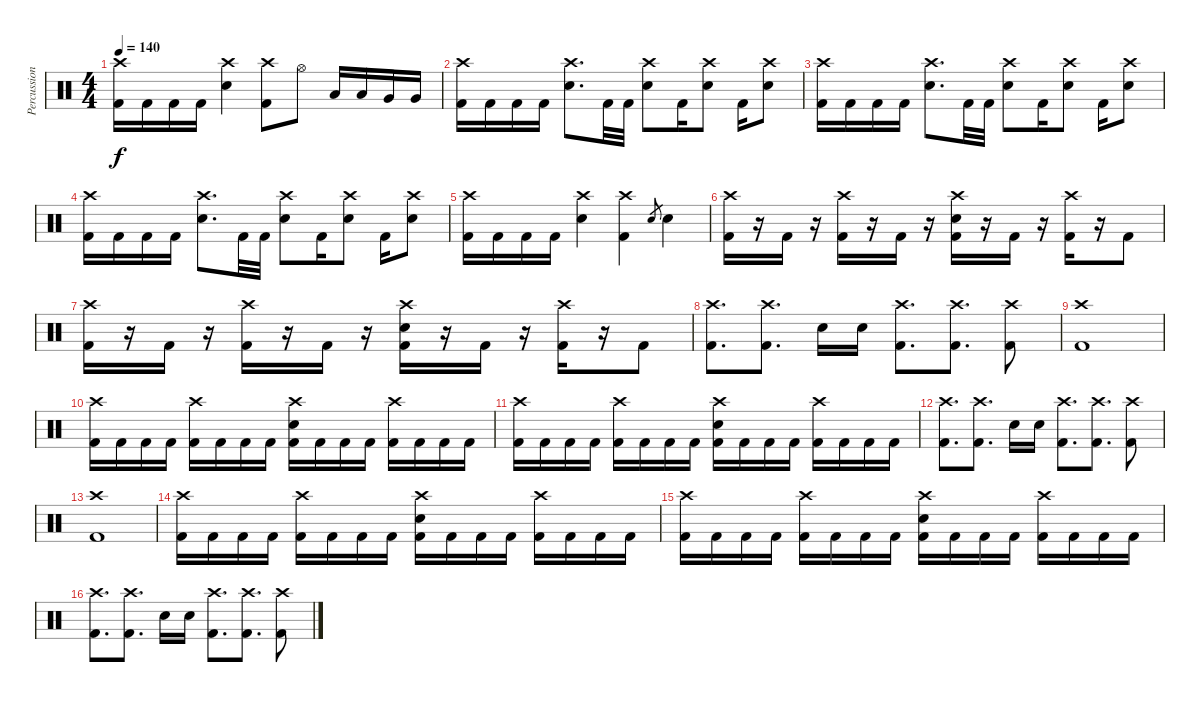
\track ("Percussion" "Percussion") {instrument percussion}
\staff {score}
\articulation defaults
\ts (4 4)
\tempo 140
\clef neutral
\ks c
("Crash high (hit)" "Kick (hit) 2").16{dy f} "Kick (hit) 2".16 "Kick (hit) 2".16 "Kick (hit) 2".16 ("Crash high (hit)" "Snare (hit) 2").4 ("Crash high (hit)" "Kick (hit) 2").8 "Hi-Hat (open)".8 "Low Tom (hit)".16 "Low Tom (hit)".16 "Very Low Tom (hit)".16 "Very Low Tom (hit)".16 |
("Crash high (hit)" "Kick (hit) 2").16 "Kick (hit) 2".16 "Kick (hit) 2".16 "Kick (hit) 2".16 ("Crash high (hit)" "Snare (hit) 2").8{d} "Kick (hit) 2".32 "Kick (hit) 2".32 ("Crash high (hit)" "Snare (hit) 2").8 "Kick (hit) 2".16 ("Crash high (hit)" "Snare (hit) 2").8 "Kick (hit) 2".16 ("Crash high (hit)" "Snare (hit) 2").8 |
("Crash high (hit)" "Kick (hit) 2").16 "Kick (hit) 2".16 "Kick (hit) 2".16 "Kick (hit) 2".16 ("Crash high (hit)" "Snare (hit) 2").8{d} "Kick (hit) 2".32 "Kick (hit) 2".32 ("Crash high (hit)" "Snare (hit) 2").8 "Kick (hit) 2".16 ("Crash high (hit)" "Snare (hit) 2").8 "Kick (hit) 2".16 ("Crash high (hit)" "Snare (hit) 2").8 |
("Crash high (hit)" "Kick (hit) 2").16 "Kick (hit) 2".16 "Kick (hit) 2".16 "Kick (hit) 2".16 ("Crash high (hit)" "Snare (hit) 2").8{d} "Kick (hit) 2".32 "Kick (hit) 2".32 ("Crash high (hit)" "Snare (hit) 2").8 "Kick (hit) 2".16 ("Crash high (hit)" "Snare (hit) 2").8 "Kick (hit) 2".16 ("Crash high (hit)" "Snare (hit) 2").8 |
("Crash high (hit)" "Kick (hit) 2").16 "Kick (hit) 2".16 "Kick (hit) 2".16 "Kick (hit) 2".16 ("Crash high (hit)" "Snare (hit) 2").4 ("Crash high (hit)" "Kick (hit) 2").4 "Snare (hit) 2".8{gr} "Snare (hit) 2".4 |
("Crash high (hit)" "Kick (hit) 2").16 r.16 "Kick (hit) 2".16 r.16 ("Crash high (hit)" "Kick (hit) 2").16 r.16 "Kick (hit) 2".16 r.16 ("Crash high (hit)" "Snare (hit) 2" "Kick (hit) 2").16 r.16 "Kick (hit) 2".16 r.16 ("Crash high (hit)" "Kick (hit) 2").16 r.16 "Kick (hit) 2".8 |
("Crash high (hit)" "Kick (hit) 2").16 r.16 "Kick (hit) 2".16 r.16 ("Crash high (hit)" "Kick (hit) 2").16 r.16 "Kick (hit) 2".16 r.16 ("Crash high (hit)" "Snare (hit) 2" "Kick (hit) 2").16 r.16 "Kick (hit) 2".16 r.16 ("Crash high (hit)" "Kick (hit) 2").16 r.16 "Kick (hit) 2".8 |
("Crash high (hit)" "Kick (hit) 2").8{d} ("Crash high (hit)" "Kick (hit) 2").8{d} "Snare (hit) 2".16 "Snare (hit) 2".16 ("Crash high (hit)" "Kick (hit) 2").8{d} ("Crash high (hit)" "Kick (hit) 2").8{d} ("Crash high (hit)" "Kick (hit) 2").8 |
("Crash high (hit)" "Kick (hit) 2").1 |
("Crash high (hit)" "Kick (hit) 2").16 "Kick (hit) 2".16 "Kick (hit) 2".16 "Kick (hit) 2".16 ("Crash high (hit)" "Kick (hit) 2").16 "Kick (hit) 2".16 "Kick (hit) 2".16 "Kick (hit) 2".16 ("Crash high (hit)" "Snare (hit) 2" "Kick (hit) 2").16 "Kick (hit) 2".16 "Kick (hit) 2".16 "Kick (hit) 2".16 ("Crash high (hit)" "Kick (hit) 2").16 "Kick (hit) 2".16 "Kick (hit) 2".16 "Kick (hit) 2".16 |
("Crash high (hit)" "Kick (hit) 2").16 "Kick (hit) 2".16 "Kick (hit) 2".16 "Kick (hit) 2".16 ("Crash high (hit)" "Kick (hit) 2").16 "Kick (hit) 2".16 "Kick (hit) 2".16 "Kick (hit) 2".16 ("Crash high (hit)" "Snare (hit) 2" "Kick (hit) 2").16 "Kick (hit) 2".16 "Kick (hit) 2".16 "Kick (hit) 2".16 ("Crash high (hit)" "Kick (hit) 2").16 "Kick (hit) 2".16 "Kick (hit) 2".16 "Kick (hit) 2".16 |
("Crash high (hit)" "Kick (hit) 2").8{d} ("Crash high (hit)" "Kick (hit) 2").8{d} "Snare (hit) 2".16 "Snare (hit) 2".16 ("Crash high (hit)" "Kick (hit) 2").8{d} ("Crash high (hit)" "Kick (hit) 2").8{d} ("Crash high (hit)" "Kick (hit) 2").8 |
("Crash high (hit)" "Kick (hit) 2").1 |
("Crash high (hit)" "Kick (hit) 2").16 "Kick (hit) 2".16 "Kick (hit) 2".16 "Kick (hit) 2".16 ("Crash high (hit)" "Kick (hit) 2").16 "Kick (hit) 2".16 "Kick (hit) 2".16 "Kick (hit) 2".16 ("Crash high (hit)" "Snare (hit) 2" "Kick (hit) 2").16 "Kick (hit) 2".16 "Kick (hit) 2".16 "Kick (hit) 2".16 ("Crash high (hit)" "Kick (hit) 2").16 "Kick (hit) 2".16 "Kick (hit) 2".16 "Kick (hit) 2".16 |
("Crash high (hit)" "Kick (hit) 2").16 "Kick (hit) 2".16 "Kick (hit) 2".16 "Kick (hit) 2".16 ("Crash high (hit)" "Kick (hit) 2").16 "Kick (hit) 2".16 "Kick (hit) 2".16 "Kick (hit) 2".16 ("Crash high (hit)" "Snare (hit) 2" "Kick (hit) 2").16 "Kick (hit) 2".16 "Kick (hit) 2".16 "Kick (hit) 2".16 ("Crash high (hit)" "Kick (hit) 2").16 "Kick (hit) 2".16 "Kick (hit) 2".16 "Kick (hit) 2".16 |
("Crash high (hit)" "Kick (hit) 2").8{d} ("Crash high (hit)" "Kick (hit) 2").8{d} "Snare (hit) 2".16 "Snare (hit) 2".16 ("Crash high (hit)" "Kick (hit) 2").8{d} ("Crash high (hit)" "Kick (hit) 2").8{d} ("Crash high (hit)" "Kick (hit) 2").8
